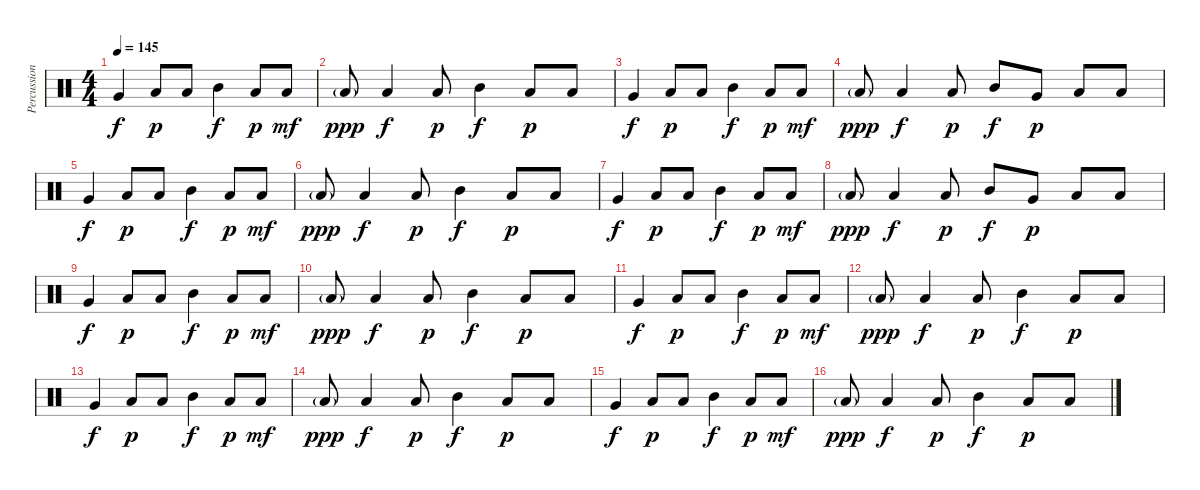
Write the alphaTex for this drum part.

\track ("Percussion" "Percussion") {instrument percussion}
\staff {score}
\articulation defaults
\ts (4 4)
\tempo 145
\clef neutral
\ks c "Very Low Tom (hit)".4{dy f} "Low Floor Tom (hit)".8{dy p} "Low Floor Tom (hit)".8 "Mid Tom (hit)".4{dy f} "Low Floor Tom (hit)".8{dy p} "Low Tom (hit)".8{dy mf}
|
"Low Floor Tom (hit)"{g}.8{dy ppp} "Low Tom (hit)".4{dy f} "Low Floor Tom (hit)".8{dy p} "Mid Tom (hit)".4{dy f} "Low Floor Tom (hit)".8{dy p} "Low Floor Tom (hit)".8 |
"Very Low Tom (hit)".4{dy f} "Low Floor Tom (hit)".8{dy p} "Low Floor Tom (hit)".8 "Mid Tom (hit)".4{dy f} "Low Floor Tom (hit)".8{dy p} "Low Tom (hit)".8{dy mf} |
"Low Floor Tom (hit)"{g}.8{dy ppp} "Low Tom (hit)".4{dy f} "Low Floor Tom (hit)".8{dy p} "Mid Tom (hit)".8{dy f} "Very Low Tom (hit)".8{dy p} "Low Floor Tom (hit)".8 "Low Floor Tom (hit)".8 |
"Very Low Tom (hit)".4{dy f} "Low Floor Tom (hit)".8{dy p} "Low Floor Tom (hit)".8 "Mid Tom (hit)".4{dy f} "Low Floor Tom (hit)".8{dy p} "Low Tom (hit)".8{dy mf} |
"Low Floor Tom (hit)"{g}.8{dy ppp} "Low Tom (hit)".4{dy f} "Low Floor Tom (hit)".8{dy p} "Mid Tom (hit)".4{dy f} "Low Floor Tom (hit)".8{dy p} "Low Floor Tom (hit)".8 |
"Very Low Tom (hit)".4{dy f} "Low Floor Tom (hit)".8{dy p} "Low Floor Tom (hit)".8 "Mid Tom (hit)".4{dy f} "Low Floor Tom (hit)".8{dy p} "Low Tom (hit)".8{dy mf} |
"Low Floor Tom (hit)"{g}.8{dy ppp} "Low Tom (hit)".4{dy f} "Low Floor Tom (hit)".8{dy p} "Mid Tom (hit)".8{dy f} "Very Low Tom (hit)".8{dy p} "Low Floor Tom (hit)".8 "Low Floor Tom (hit)".8 |
"Very Low Tom (hit)".4{dy f} "Low Floor Tom (hit)".8{dy p} "Low Floor Tom (hit)".8 "Mid Tom (hit)".4{dy f} "Low Floor Tom (hit)".8{dy p} "Low Tom (hit)".8{dy mf} |
"Low Floor Tom (hit)"{g}.8{dy ppp} "Low Tom (hit)".4{dy f} "Low Floor Tom (hit)".8{dy p} "Mid Tom (hit)".4{dy f} "Low Floor Tom (hit)".8{dy p} "Low Floor Tom (hit)".8 |
"Very Low Tom (hit)".4{dy f} "Low Floor Tom (hit)".8{dy p} "Low Floor Tom (hit)".8 "Mid Tom (hit)".4{dy f} "Low Floor Tom (hit)".8{dy p} "Low Tom (hit)".8{dy mf} |
"Low Floor Tom (hit)"{g}.8{dy ppp} "Low Tom (hit)".4{dy f} "Low Floor Tom (hit)".8{dy p} "Mid Tom (hit)".4{dy f} "Low Floor Tom (hit)".8{dy p} "Low Floor Tom (hit)".8 |
"Very Low Tom (hit)".4{dy f} "Low Floor Tom (hit)".8{dy p} "Low Floor Tom (hit)".8 "Mid Tom (hit)".4{dy f} "Low Floor Tom (hit)".8{dy p} "Low Tom (hit)".8{dy mf} |
"Low Floor Tom (hit)"{g}.8{dy ppp} "Low Tom (hit)".4{dy f} "Low Floor Tom (hit)".8{dy p} "Mid Tom (hit)".4{dy f} "Low Floor Tom (hit)".8{dy p} "Low Floor Tom (hit)".8 |
"Very Low Tom (hit)".4{dy f} "Low Floor Tom (hit)".8{dy p} "Low Floor Tom (hit)".8 "Mid Tom (hit)".4{dy f} "Low Floor Tom (hit)".8{dy p} "Low Tom (hit)".8{dy mf} |
"Low Floor Tom (hit)"{g}.8{dy ppp} "Low Tom (hit)".4{dy f} "Low Floor Tom (hit)".8{dy p} "Mid Tom (hit)".4{dy f} "Low Floor Tom (hit)".8{dy p} "Low Floor Tom (hit)".8
